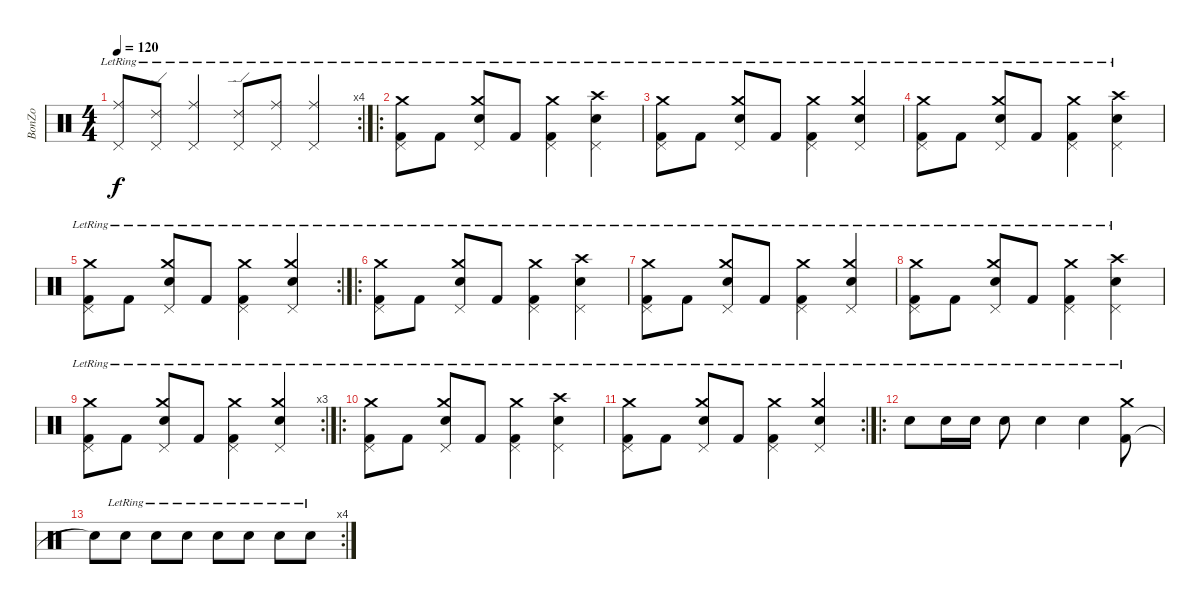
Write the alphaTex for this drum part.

\track ("BonZo" "BonZo") {instrument percussion}
\staff {score}
\articulation defaults
\rc 4
\ts (4 4)
\tempo 120
\clef neutral
\ks c
("Ride (middle)"{lr} "Pedal Hi-Hat (hit)"{lr}).8{dy f} ("Ride (edge) 2"{lr} "Pedal Hi-Hat (hit)"{lr}).8 ("Ride (middle)"{lr} "Pedal Hi-Hat (hit)"{lr}).4 ("Ride (edge) 2"{lr} "Pedal Hi-Hat (hit)"{lr}).8 ("Ride (middle)"{lr} "Pedal Hi-Hat (hit)"{lr}).8 ("Ride (middle)"{lr} "Pedal Hi-Hat (hit)"{lr}).4 |
\ro
("Kick (hit) 2"{lr} "Crash medium (hit)"{lr} "Pedal Hi-Hat (hit)"{lr}).8 "Kick (hit) 2"{lr}.8 ("Electric Snare (hit)"{lr} "Crash medium (hit)"{lr} "Pedal Hi-Hat (hit)"{lr}).8 "Kick (hit) 2"{lr}.8 ("Kick (hit) 2"{lr} "Crash medium (hit)"{lr} "Pedal Hi-Hat (hit)"{lr}).4 ("Electric Snare (hit)"{lr} "Crash high (hit)"{lr} "Pedal Hi-Hat (hit)"{lr}).4 |
("Kick (hit) 2"{lr} "Crash medium (hit)"{lr} "Pedal Hi-Hat (hit)"{lr}).8 "Kick (hit) 2"{lr}.8 ("Electric Snare (hit)"{lr} "Crash medium (hit)"{lr} "Pedal Hi-Hat (hit)"{lr}).8 "Kick (hit) 2"{lr}.8 ("Kick (hit) 2"{lr} "Crash medium (hit)"{lr} "Pedal Hi-Hat (hit)"{lr}).4 ("Electric Snare (hit)"{lr} "Crash medium (hit)"{lr} "Pedal Hi-Hat (hit)"{lr}).4 |
("Kick (hit) 2"{lr} "Crash medium (hit)"{lr} "Pedal Hi-Hat (hit)"{lr}).8 "Kick (hit) 2"{lr}.8 ("Electric Snare (hit)"{lr} "Crash medium (hit)"{lr} "Pedal Hi-Hat (hit)"{lr}).8 "Kick (hit) 2"{lr}.8 ("Kick (hit) 2"{lr} "Crash medium (hit)"{lr} "Pedal Hi-Hat (hit)"{lr}).4 ("Electric Snare (hit)"{lr} "Crash high (hit)"{lr} "Pedal Hi-Hat (hit)"{lr}).4 |
\rc 2
("Kick (hit) 2"{lr} "Crash medium (hit)"{lr} "Pedal Hi-Hat (hit)"{lr}).8 "Kick (hit) 2"{lr}.8 ("Electric Snare (hit)"{lr} "Crash medium (hit)"{lr} "Pedal Hi-Hat (hit)"{lr}).8 "Kick (hit) 2"{lr}.8 ("Kick (hit) 2"{lr} "Crash medium (hit)"{lr} "Pedal Hi-Hat (hit)"{lr}).4 ("Electric Snare (hit)"{lr} "Crash medium (hit)"{lr} "Pedal Hi-Hat (hit)"{lr}).4 |
\ro
("Kick (hit) 2"{lr} "Crash medium (hit)"{lr} "Pedal Hi-Hat (hit)"{lr}).8 "Kick (hit) 2"{lr}.8 ("Electric Snare (hit)"{lr} "Crash medium (hit)"{lr} "Pedal Hi-Hat (hit)"{lr}).8 "Kick (hit) 2"{lr}.8 ("Kick (hit) 2"{lr} "Crash medium (hit)"{lr} "Pedal Hi-Hat (hit)"{lr}).4 ("Electric Snare (hit)"{lr} "Crash high (hit)"{lr} "Pedal Hi-Hat (hit)"{lr}).4 |
("Kick (hit) 2"{lr} "Crash medium (hit)"{lr} "Pedal Hi-Hat (hit)"{lr}).8 "Kick (hit) 2"{lr}.8 ("Electric Snare (hit)"{lr} "Crash medium (hit)"{lr} "Pedal Hi-Hat (hit)"{lr}).8 "Kick (hit) 2"{lr}.8 ("Kick (hit) 2"{lr} "Crash medium (hit)"{lr} "Pedal Hi-Hat (hit)"{lr}).4 ("Electric Snare (hit)"{lr} "Crash medium (hit)"{lr} "Pedal Hi-Hat (hit)"{lr}).4 |
("Kick (hit) 2"{lr} "Crash medium (hit)"{lr} "Pedal Hi-Hat (hit)"{lr}).8 "Kick (hit) 2"{lr}.8 ("Electric Snare (hit)"{lr} "Crash medium (hit)"{lr} "Pedal Hi-Hat (hit)"{lr}).8 "Kick (hit) 2"{lr}.8 ("Kick (hit) 2"{lr} "Crash medium (hit)"{lr} "Pedal Hi-Hat (hit)"{lr}).4 ("Electric Snare (hit)"{lr} "Crash high (hit)"{lr} "Pedal Hi-Hat (hit)"{lr}).4 |
\rc 3
("Kick (hit) 2"{lr} "Crash medium (hit)"{lr} "Pedal Hi-Hat (hit)"{lr}).8 "Kick (hit) 2"{lr}.8 ("Electric Snare (hit)"{lr} "Crash medium (hit)"{lr} "Pedal Hi-Hat (hit)"{lr}).8 "Kick (hit) 2"{lr}.8 ("Kick (hit) 2"{lr} "Crash medium (hit)"{lr} "Pedal Hi-Hat (hit)"{lr}).4 ("Electric Snare (hit)"{lr} "Crash medium (hit)"{lr} "Pedal Hi-Hat (hit)"{lr}).4 |
\ro
("Kick (hit) 2"{lr} "Crash medium (hit)"{lr} "Pedal Hi-Hat (hit)"{lr}).8 "Kick (hit) 2"{lr}.8 ("Electric Snare (hit)"{lr} "Crash medium (hit)"{lr} "Pedal Hi-Hat (hit)"{lr}).8 "Kick (hit) 2"{lr}.8 ("Kick (hit) 2"{lr} "Crash medium (hit)"{lr} "Pedal Hi-Hat (hit)"{lr}).4 ("Electric Snare (hit)"{lr} "Crash high (hit)"{lr} "Pedal Hi-Hat (hit)"{lr}).4 |
\rc 2
("Kick (hit) 2"{lr} "Crash medium (hit)"{lr} "Pedal Hi-Hat (hit)"{lr}).8 "Kick (hit) 2"{lr}.8 ("Electric Snare (hit)"{lr} "Crash medium (hit)"{lr} "Pedal Hi-Hat (hit)"{lr}).8 "Kick (hit) 2"{lr}.8 ("Kick (hit) 2"{lr} "Crash medium (hit)"{lr} "Pedal Hi-Hat (hit)"{lr}).4 ("Electric Snare (hit)"{lr} "Crash medium (hit)"{lr} "Pedal Hi-Hat (hit)"{lr}).4 |
\ro "Electric Snare (hit)"{lr}.8 "Electric Snare (hit)"{lr}.16 "Electric Snare (hit)"{lr}.16 "Electric Snare (hit)"{lr}.8 "Electric Snare (hit)"{lr}.4 "Electric Snare (hit)"{lr}.4
("Kick (hit) 2"{lr} "Crash medium (hit)"{lr}).8 |
\rc 4 "Electric Snare (hit)"{t}.8 "Electric Snare (hit)"{lr}.8 "Electric Snare (hit)"{lr}.8 "Electric Snare (hit)"{lr}.8 "Electric Snare (hit)"{lr}.8 "Electric Snare (hit)"{lr}.8 "Electric Snare (hit)"{lr}.8 "Electric Snare (hit)"{lr}.8
